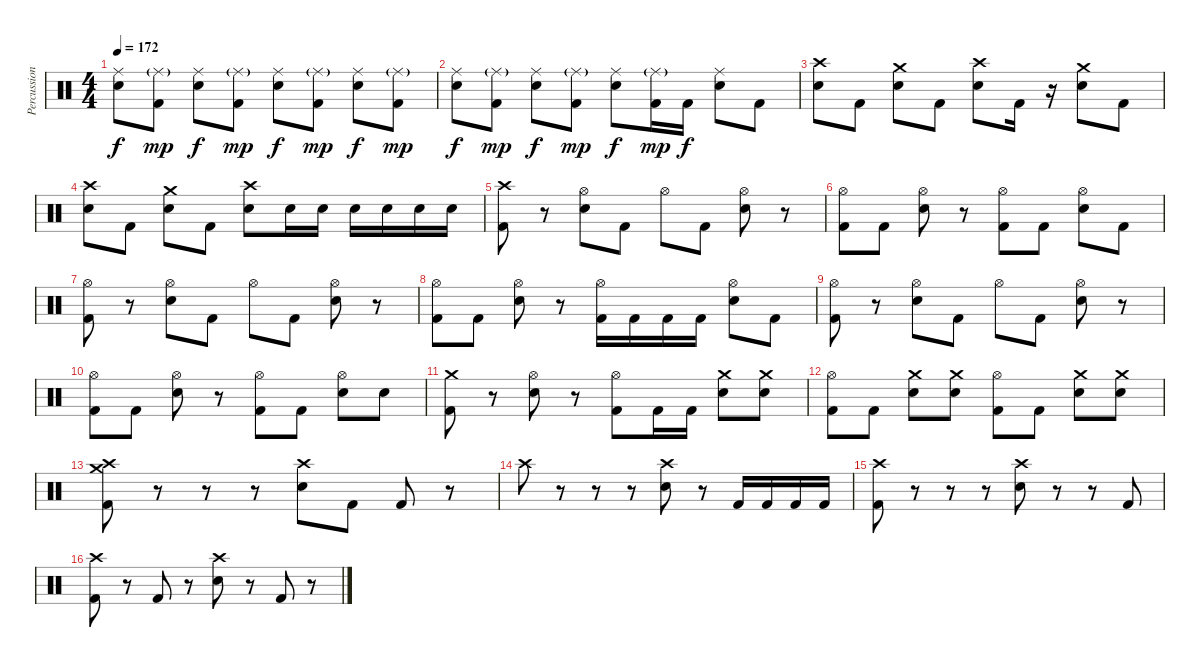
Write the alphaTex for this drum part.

\track ("Percussion" "Percussion") {instrument percussion}
\staff {score}
\articulation defaults
\ts (4 4)
\tempo 172
\clef neutral
\ks c
("Ride (middle)" "Snare (hit) 2").8{dy f} ("Ride (middle)"{g} "Kick (hit) 2").8{dy mp} ("Ride (middle)" "Snare (hit) 2").8{dy f} ("Ride (middle)"{g} "Kick (hit) 2").8{dy mp} ("Ride (middle)" "Snare (hit) 2").8{dy f} ("Ride (middle)"{g} "Kick (hit) 2").8{dy mp} ("Ride (middle)" "Snare (hit) 2").8{dy f} ("Ride (middle)"{g} "Kick (hit) 2").8{dy mp} |
("Ride (middle)" "Snare (hit) 2").8{dy f} ("Ride (middle)"{g} "Kick (hit) 2").8{dy mp} ("Ride (middle)" "Snare (hit) 2").8{dy f} ("Ride (middle)"{g} "Kick (hit) 2").8{dy mp} ("Ride (middle)" "Snare (hit) 2").8{dy f} ("Ride (middle)"{g} "Kick (hit) 2").16{dy mp} "Kick (hit) 2".16{dy f} ("Ride (middle)" "Snare (hit) 2").8 "Kick (hit) 2".8 |
("Crash high (hit)" "Snare (hit) 2").8 "Kick (hit) 2".8 ("Crash medium (hit)" "Snare (hit) 2").8 "Kick (hit) 2".8 ("Crash high (hit)" "Snare (hit) 2").8 "Kick (hit) 2".16 r.16 ("Crash medium (hit)" "Snare (hit) 2").8 "Kick (hit) 2".8 |
("Crash high (hit)" "Snare (hit) 2").8 "Kick (hit) 2".8 ("Crash medium (hit)" "Snare (hit) 2").8 "Kick (hit) 2".8 ("Crash high (hit)" "Snare (hit) 2").8 "Snare (hit) 2".16 "Snare (hit) 2".16 "Snare (hit) 2".16 "Snare (hit) 2".16 "Snare (hit) 2".16 "Snare (hit) 2".16 |
("Crash high (hit)" "Kick (hit) 2").8 r.8 ("Hi-Hat (open)" "Snare (hit) 2").8 "Kick (hit) 2".8 "Hi-Hat (open)".8 "Kick (hit) 2".8 ("Hi-Hat (open)" "Snare (hit) 2").8 r.8 |
("Hi-Hat (open)" "Kick (hit) 2").8 "Kick (hit) 2".8 ("Hi-Hat (open)" "Snare (hit) 2").8 r.8 ("Hi-Hat (open)" "Kick (hit) 2").8 "Kick (hit) 2".8 ("Hi-Hat (open)" "Snare (hit) 2").8 "Kick (hit) 2".8 |
("Hi-Hat (open)" "Kick (hit) 2").8 r.8 ("Hi-Hat (open)" "Snare (hit) 2").8 "Kick (hit) 2".8 "Hi-Hat (open)".8 "Kick (hit) 2".8 ("Hi-Hat (open)" "Snare (hit) 2").8 r.8 |
("Hi-Hat (open)" "Kick (hit) 2").8 "Kick (hit) 2".8 ("Hi-Hat (open)" "Snare (hit) 2").8 r.8 ("Hi-Hat (open)" "Kick (hit) 2").16 "Kick (hit) 2".16 "Kick (hit) 2".16 "Kick (hit) 2".16 ("Hi-Hat (open)" "Snare (hit) 2").8 "Kick (hit) 2".8 |
("Hi-Hat (open)" "Kick (hit) 2").8 r.8 ("Hi-Hat (open)" "Snare (hit) 2").8 "Kick (hit) 2".8 "Hi-Hat (open)".8 "Kick (hit) 2".8 ("Hi-Hat (open)" "Snare (hit) 2").8 r.8 |
("Hi-Hat (open)" "Kick (hit) 2").8 "Kick (hit) 2".8 ("Hi-Hat (open)" "Snare (hit) 2").8 r.8 ("Hi-Hat (open)" "Kick (hit) 2").8 "Kick (hit) 2".8 ("Hi-Hat (open)" "Snare (hit) 2").8 "Snare (hit) 2".8 |
("Crash medium (hit)" "Kick (hit) 2").8 r.8 ("Hi-Hat (open)" "Snare (hit) 2").8 r.8 ("Hi-Hat (open)" "Kick (hit) 2").8 "Kick (hit) 2".16 "Kick (hit) 2".16 ("Crash medium (hit)" "Snare (hit) 2").8 ("Crash medium (hit)" "Snare (hit) 2").8 |
("Hi-Hat (open)" "Kick (hit) 2").8 "Kick (hit) 2".8 ("Crash medium (hit)" "Snare (hit) 2").8 ("Crash medium (hit)" "Snare (hit) 2").8 ("Hi-Hat (open)" "Kick (hit) 2").8 "Kick (hit) 2".8 ("Crash medium (hit)" "Snare (hit) 2").8 ("Crash medium (hit)" "Snare (hit) 2").8 |
("Crash medium (hit)" "Crash high (hit)" "Kick (hit) 2").8 r.8 r.8 r.8 ("Crash high (hit)" "Snare (hit) 2").8 "Kick (hit) 2".8 "Kick (hit) 2".8 r.8 |
"Crash high (hit)".8 r.8 r.8 r.8 ("Crash high (hit)" "Snare (hit) 2").8 r.8 "Kick (hit) 2".16 "Kick (hit) 2".16 "Kick (hit) 2".16 "Kick (hit) 2".16 |
("Crash high (hit)" "Kick (hit) 2").8 r.8 r.8 r.8 ("Crash high (hit)" "Snare (hit) 2").8 r.8 r.8 "Kick (hit) 2".8 |
("Crash high (hit)" "Kick (hit) 2").8 r.8 "Kick (hit) 2".8 r.8 ("Crash high (hit)" "Snare (hit) 2").8 r.8 "Kick (hit) 2".8 r.8
